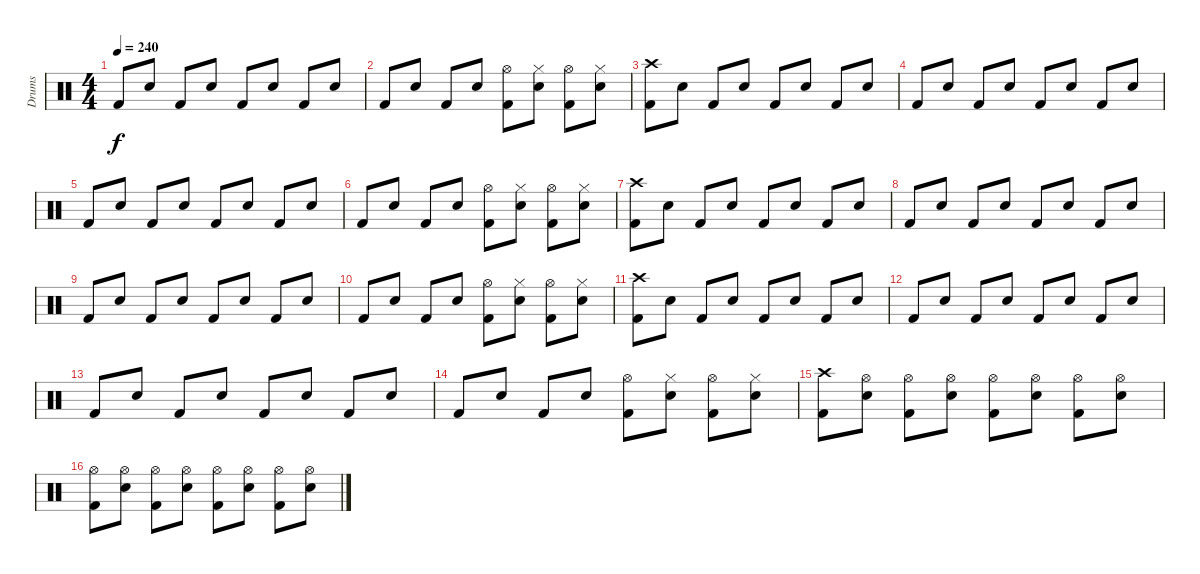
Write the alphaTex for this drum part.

\track ("Drums" "Drums") {instrument percussion}
\staff {score}
\articulation defaults
\ts (4 4)
\tempo 240
\clef neutral
\ks c "Kick (hit) 2".8{dy f} "Snare (hit) 2".8 "Kick (hit) 2".8 "Snare (hit) 2".8 "Kick (hit) 2".8 "Snare (hit) 2".8 "Kick (hit) 2".8 "Snare (hit) 2".8
|
"Kick (hit) 2".8 "Snare (hit) 2".8 "Kick (hit) 2".8 "Snare (hit) 2".8 ("Hi-Hat (open)" "Kick (hit) 2").8 ("Hi-Hat (closed)" "Snare (hit) 2").8 ("Hi-Hat (open)" "Kick (hit) 2").8 ("Hi-Hat (closed)" "Snare (hit) 2").8 |
("Crash high (hit)" "Kick (hit) 2").8 "Snare (hit) 2".8 "Kick (hit) 2".8 "Snare (hit) 2".8 "Kick (hit) 2".8 "Snare (hit) 2".8 "Kick (hit) 2".8 "Snare (hit) 2".8 |
"Kick (hit) 2".8 "Snare (hit) 2".8 "Kick (hit) 2".8 "Snare (hit) 2".8 "Kick (hit) 2".8 "Snare (hit) 2".8 "Kick (hit) 2".8 "Snare (hit) 2".8 |
"Kick (hit) 2".8 "Snare (hit) 2".8 "Kick (hit) 2".8 "Snare (hit) 2".8 "Kick (hit) 2".8 "Snare (hit) 2".8 "Kick (hit) 2".8 "Snare (hit) 2".8 |
"Kick (hit) 2".8 "Snare (hit) 2".8 "Kick (hit) 2".8 "Snare (hit) 2".8 ("Hi-Hat (open)" "Kick (hit) 2").8 ("Hi-Hat (closed)" "Snare (hit) 2").8 ("Hi-Hat (open)" "Kick (hit) 2").8 ("Hi-Hat (closed)" "Snare (hit) 2").8 |
("Crash high (hit)" "Kick (hit) 2").8 "Snare (hit) 2".8 "Kick (hit) 2".8 "Snare (hit) 2".8 "Kick (hit) 2".8 "Snare (hit) 2".8 "Kick (hit) 2".8 "Snare (hit) 2".8 |
"Kick (hit) 2".8 "Snare (hit) 2".8 "Kick (hit) 2".8 "Snare (hit) 2".8 "Kick (hit) 2".8 "Snare (hit) 2".8 "Kick (hit) 2".8 "Snare (hit) 2".8 |
"Kick (hit) 2".8 "Snare (hit) 2".8 "Kick (hit) 2".8 "Snare (hit) 2".8 "Kick (hit) 2".8 "Snare (hit) 2".8 "Kick (hit) 2".8 "Snare (hit) 2".8 |
"Kick (hit) 2".8 "Snare (hit) 2".8 "Kick (hit) 2".8 "Snare (hit) 2".8 ("Hi-Hat (open)" "Kick (hit) 2").8 ("Hi-Hat (closed)" "Snare (hit) 2").8 ("Hi-Hat (open)" "Kick (hit) 2").8 ("Hi-Hat (closed)" "Snare (hit) 2").8 |
("Crash high (hit)" "Kick (hit) 2").8 "Snare (hit) 2".8 "Kick (hit) 2".8 "Snare (hit) 2".8 "Kick (hit) 2".8 "Snare (hit) 2".8 "Kick (hit) 2".8 "Snare (hit) 2".8 |
"Kick (hit) 2".8 "Snare (hit) 2".8 "Kick (hit) 2".8 "Snare (hit) 2".8 "Kick (hit) 2".8 "Snare (hit) 2".8 "Kick (hit) 2".8 "Snare (hit) 2".8 |
"Kick (hit) 2".8 "Snare (hit) 2".8 "Kick (hit) 2".8 "Snare (hit) 2".8 "Kick (hit) 2".8 "Snare (hit) 2".8 "Kick (hit) 2".8 "Snare (hit) 2".8 |
"Kick (hit) 2".8 "Snare (hit) 2".8 "Kick (hit) 2".8 "Snare (hit) 2".8 ("Hi-Hat (open)" "Kick (hit) 2").8 ("Hi-Hat (closed)" "Snare (hit) 2").8 ("Hi-Hat (open)" "Kick (hit) 2").8 ("Hi-Hat (closed)" "Snare (hit) 2").8 |
("Crash high (hit)" "Kick (hit) 2").8 ("Hi-Hat (open)" "Snare (hit) 2").8 ("Hi-Hat (open)" "Kick (hit) 2").8 ("Hi-Hat (open)" "Snare (hit) 2").8 ("Hi-Hat (open)" "Kick (hit) 2").8 ("Hi-Hat (open)" "Snare (hit) 2").8 ("Hi-Hat (open)" "Kick (hit) 2").8 ("Hi-Hat (open)" "Snare (hit) 2").8 |
("Hi-Hat (open)" "Kick (hit) 2").8 ("Hi-Hat (open)" "Snare (hit) 2").8 ("Hi-Hat (open)" "Kick (hit) 2").8 ("Hi-Hat (open)" "Snare (hit) 2").8 ("Hi-Hat (open)" "Kick (hit) 2").8 ("Hi-Hat (open)" "Snare (hit) 2").8 ("Hi-Hat (open)" "Kick (hit) 2").8 ("Hi-Hat (open)" "Snare (hit) 2").8
